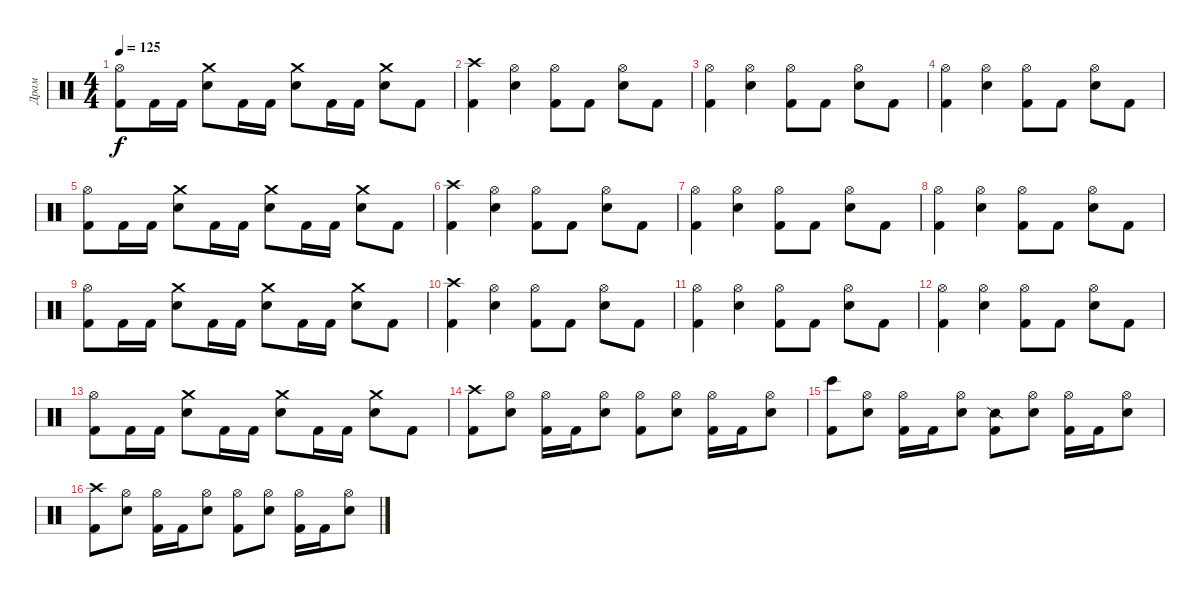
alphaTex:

\track ("Драм" "Драм") {instrument percussion}
\staff {score}
\articulation defaults
\ts (4 4)
\tempo 125
\clef neutral
\ks c
("Hi-Hat (open)" "Kick (hit) 2").8{dy f} "Kick (hit) 2".16 "Kick (hit) 2".16 ("Snare (hit) 2" "Crash medium (hit)").8 "Kick (hit) 2".16 "Kick (hit) 2".16 ("Snare (hit) 2" "Crash medium (hit)").8 "Kick (hit) 2".16 "Kick (hit) 2".16 ("Snare (hit) 2" "Crash medium (hit)").8 "Kick (hit) 2".8 |
("Kick (hit) 2" "Crash high (hit)").4 ("Hi-Hat (open)" "Snare (hit) 2").4 ("Hi-Hat (open)" "Kick (hit) 2").8 "Kick (hit) 2".8 ("Hi-Hat (open)" "Snare (hit) 2").8 "Kick (hit) 2".8 |
("Hi-Hat (open)" "Kick (hit) 2").4 ("Hi-Hat (open)" "Snare (hit) 2").4 ("Hi-Hat (open)" "Kick (hit) 2").8 "Kick (hit) 2".8 ("Hi-Hat (open)" "Snare (hit) 2").8 "Kick (hit) 2".8 |
("Hi-Hat (open)" "Kick (hit) 2").4 ("Hi-Hat (open)" "Snare (hit) 2").4 ("Hi-Hat (open)" "Kick (hit) 2").8 "Kick (hit) 2".8 ("Hi-Hat (open)" "Snare (hit) 2").8 "Kick (hit) 2".8 |
("Hi-Hat (open)" "Kick (hit) 2").8 "Kick (hit) 2".16 "Kick (hit) 2".16 ("Snare (hit) 2" "Crash medium (hit)").8 "Kick (hit) 2".16 "Kick (hit) 2".16 ("Snare (hit) 2" "Crash medium (hit)").8 "Kick (hit) 2".16 "Kick (hit) 2".16 ("Snare (hit) 2" "Crash medium (hit)").8 "Kick (hit) 2".8 |
("Kick (hit) 2" "Crash high (hit)").4 ("Hi-Hat (open)" "Snare (hit) 2").4 ("Hi-Hat (open)" "Kick (hit) 2").8 "Kick (hit) 2".8 ("Hi-Hat (open)" "Snare (hit) 2").8 "Kick (hit) 2".8 |
("Hi-Hat (open)" "Kick (hit) 2").4 ("Hi-Hat (open)" "Snare (hit) 2").4 ("Hi-Hat (open)" "Kick (hit) 2").8 "Kick (hit) 2".8 ("Hi-Hat (open)" "Snare (hit) 2").8 "Kick (hit) 2".8 |
("Hi-Hat (open)" "Kick (hit) 2").4 ("Hi-Hat (open)" "Snare (hit) 2").4 ("Hi-Hat (open)" "Kick (hit) 2").8 "Kick (hit) 2".8 ("Hi-Hat (open)" "Snare (hit) 2").8 "Kick (hit) 2".8 |
("Hi-Hat (open)" "Kick (hit) 2").8 "Kick (hit) 2".16 "Kick (hit) 2".16 ("Snare (hit) 2" "Crash medium (hit)").8 "Kick (hit) 2".16 "Kick (hit) 2".16 ("Snare (hit) 2" "Crash medium (hit)").8 "Kick (hit) 2".16 "Kick (hit) 2".16 ("Snare (hit) 2" "Crash medium (hit)").8 "Kick (hit) 2".8 |
("Kick (hit) 2" "Crash high (hit)").4 ("Hi-Hat (open)" "Snare (hit) 2").4 ("Hi-Hat (open)" "Kick (hit) 2").8 "Kick (hit) 2".8 ("Hi-Hat (open)" "Snare (hit) 2").8 "Kick (hit) 2".8 |
("Hi-Hat (open)" "Kick (hit) 2").4 ("Hi-Hat (open)" "Snare (hit) 2").4 ("Hi-Hat (open)" "Kick (hit) 2").8 "Kick (hit) 2".8 ("Hi-Hat (open)" "Snare (hit) 2").8 "Kick (hit) 2".8 |
("Hi-Hat (open)" "Kick (hit) 2").4 ("Hi-Hat (open)" "Snare (hit) 2").4 ("Hi-Hat (open)" "Kick (hit) 2").8 "Kick (hit) 2".8 ("Hi-Hat (open)" "Snare (hit) 2").8 "Kick (hit) 2".8 |
("Hi-Hat (open)" "Kick (hit) 2").8 "Kick (hit) 2".16 "Kick (hit) 2".16 ("Snare (hit) 2" "Crash medium (hit)").8 "Kick (hit) 2".16 "Kick (hit) 2".16 ("Snare (hit) 2" "Crash medium (hit)").8 "Kick (hit) 2".16 "Kick (hit) 2".16 ("Snare (hit) 2" "Crash medium (hit)").8 "Kick (hit) 2".8 |
("Kick (hit) 2" "Crash high (hit)").8 ("Hi-Hat (open)" "Snare (hit) 2").8 ("Hi-Hat (open)" "Kick (hit) 2").16 "Kick (hit) 2".16 ("Hi-Hat (open)" "Snare (hit) 2").8 ("Hi-Hat (open)" "Kick (hit) 2").8 ("Hi-Hat (open)" "Snare (hit) 2").8 ("Hi-Hat (open)" "Kick (hit) 2").16 "Kick (hit) 2".16 ("Hi-Hat (open)" "Snare (hit) 2").8 |
("Kick (hit) 2" "Bongo High (hit)").8 ("Hi-Hat (open)" "Snare (hit) 2").8 ("Hi-Hat (open)" "Kick (hit) 2").16 "Kick (hit) 2".16 ("Hi-Hat (open)" "Snare (hit) 2").8 ("Kick (hit) 2" "Snare (side stick) 2").8 ("Hi-Hat (open)" "Snare (hit) 2").8 ("Hi-Hat (open)" "Kick (hit) 2").16 "Kick (hit) 2".16 ("Hi-Hat (open)" "Snare (hit) 2").8 |
("Kick (hit) 2" "Crash high (hit)").8 ("Hi-Hat (open)" "Snare (hit) 2").8 ("Hi-Hat (open)" "Kick (hit) 2").16 "Kick (hit) 2".16 ("Hi-Hat (open)" "Snare (hit) 2").8 ("Hi-Hat (open)" "Kick (hit) 2").8 ("Hi-Hat (open)" "Snare (hit) 2").8 ("Hi-Hat (open)" "Kick (hit) 2").16 "Kick (hit) 2".16 ("Hi-Hat (open)" "Snare (hit) 2").8
